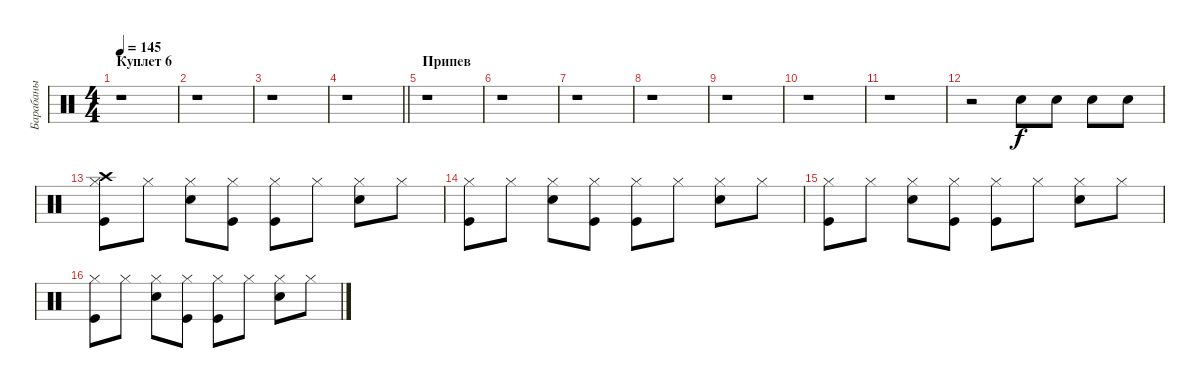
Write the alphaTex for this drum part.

\track ("Барабаны" "Барабаны") {instrument percussion}
\staff {score}
\articulation defaults
\ts (4 4)
\section ("" "Куплет 6")
\tempo 145
\clef neutral
\ks c
r.1{dy f} |
r.1 |
r.1 |
\barLineRight lightlight
r.1 |
\section ("" "Припев")
r.1 |
r.1 |
r.1 |
r.1 |
r.1 |
r.1 |
r.1 |
r.2 "Snare (hit) 2".8 "Snare (hit) 2".8 "Snare (hit) 2".8 "Snare (hit) 2".8 |
("Kick (hit)" "Hi-Hat (closed)" "Crash high (hit)").8 "Hi-Hat (closed)".8 ("Snare (hit) 2" "Hi-Hat (closed)").8 ("Kick (hit)" "Hi-Hat (closed)").8 ("Kick (hit)" "Hi-Hat (closed)").8 "Hi-Hat (closed)".8 ("Snare (hit) 2" "Hi-Hat (closed)").8 "Hi-Hat (closed)".8 |
("Kick (hit)" "Hi-Hat (closed)").8 "Hi-Hat (closed)".8 ("Snare (hit) 2" "Hi-Hat (closed)").8 ("Kick (hit)" "Hi-Hat (closed)").8 ("Kick (hit)" "Hi-Hat (closed)").8 "Hi-Hat (closed)".8 ("Snare (hit) 2" "Hi-Hat (closed)").8 "Hi-Hat (closed)".8 |
("Kick (hit)" "Hi-Hat (closed)").8 "Hi-Hat (closed)".8 ("Snare (hit) 2" "Hi-Hat (closed)").8 ("Kick (hit)" "Hi-Hat (closed)").8 ("Kick (hit)" "Hi-Hat (closed)").8 "Hi-Hat (closed)".8 ("Snare (hit) 2" "Hi-Hat (closed)").8 "Hi-Hat (closed)".8 |
("Kick (hit)" "Hi-Hat (closed)").8 "Hi-Hat (closed)".8 ("Snare (hit) 2" "Hi-Hat (closed)").8 ("Kick (hit)" "Hi-Hat (closed)").8 ("Kick (hit)" "Hi-Hat (closed)").8 "Hi-Hat (closed)".8 ("Snare (hit) 2" "Hi-Hat (closed)").8 "Hi-Hat (closed)".8
